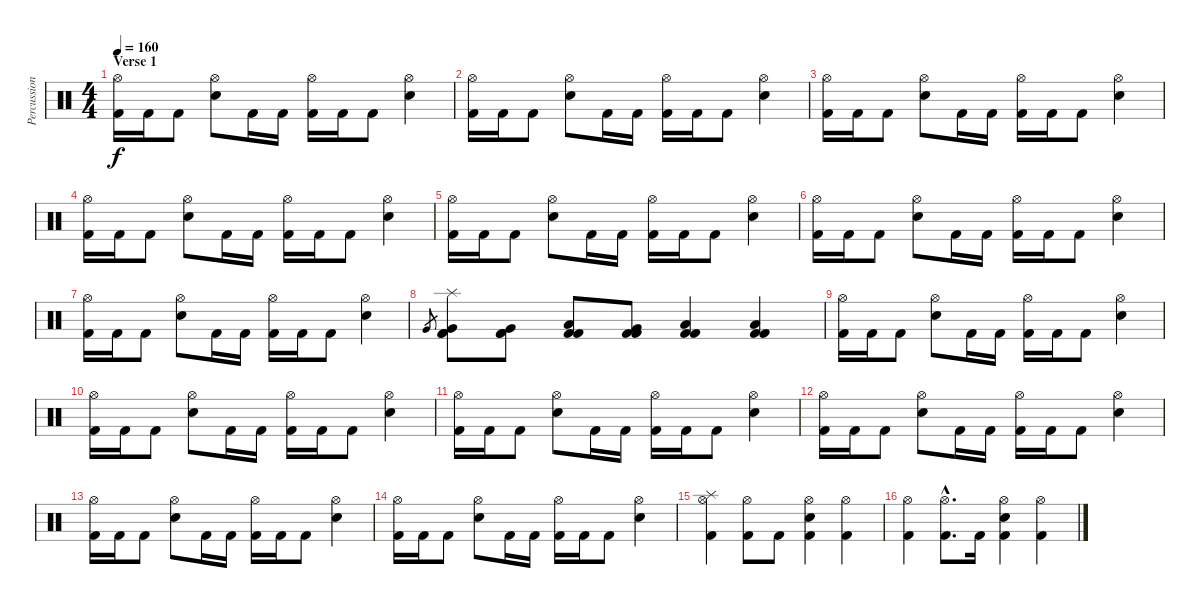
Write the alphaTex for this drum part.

\track ("Percussions" "Percussion") {instrument percussion}
\staff {score}
\articulation defaults
\ts (4 4)
\section ("" "Verse 1")
\tempo 160
\clef neutral
\ks c
("Hi-Hat (open)" "Kick (hit) 2").16{dy f} "Kick (hit) 2".16 "Kick (hit) 2".8 ("Electric Snare (hit)" "Hi-Hat (open)").8 "Kick (hit) 2".16 "Kick (hit) 2".16 ("Hi-Hat (open)" "Kick (hit) 2").16 "Kick (hit) 2".16 "Kick (hit) 2".8 ("Electric Snare (hit)" "Hi-Hat (open)").4 |
("Hi-Hat (open)" "Kick (hit) 2").16 "Kick (hit) 2".16 "Kick (hit) 2".8 ("Electric Snare (hit)" "Hi-Hat (open)").8 "Kick (hit) 2".16 "Kick (hit) 2".16 ("Hi-Hat (open)" "Kick (hit) 2").16 "Kick (hit) 2".16 "Kick (hit) 2".8 ("Electric Snare (hit)" "Hi-Hat (open)").4 |
("Hi-Hat (open)" "Kick (hit) 2").16 "Kick (hit) 2".16 "Kick (hit) 2".8 ("Electric Snare (hit)" "Hi-Hat (open)").8 "Kick (hit) 2".16 "Kick (hit) 2".16 ("Hi-Hat (open)" "Kick (hit) 2").16 "Kick (hit) 2".16 "Kick (hit) 2".8 ("Electric Snare (hit)" "Hi-Hat (open)").4 |
("Hi-Hat (open)" "Kick (hit) 2").16 "Kick (hit) 2".16 "Kick (hit) 2".8 ("Electric Snare (hit)" "Hi-Hat (open)").8 "Kick (hit) 2".16 "Kick (hit) 2".16 ("Hi-Hat (open)" "Kick (hit) 2").16 "Kick (hit) 2".16 "Kick (hit) 2".8 ("Electric Snare (hit)" "Hi-Hat (open)").4 |
("Hi-Hat (open)" "Kick (hit) 2").16 "Kick (hit) 2".16 "Kick (hit) 2".8 ("Electric Snare (hit)" "Hi-Hat (open)").8 "Kick (hit) 2".16 "Kick (hit) 2".16 ("Hi-Hat (open)" "Kick (hit) 2").16 "Kick (hit) 2".16 "Kick (hit) 2".8 ("Electric Snare (hit)" "Hi-Hat (open)").4 |
("Hi-Hat (open)" "Kick (hit) 2").16 "Kick (hit) 2".16 "Kick (hit) 2".8 ("Electric Snare (hit)" "Hi-Hat (open)").8 "Kick (hit) 2".16 "Kick (hit) 2".16 ("Hi-Hat (open)" "Kick (hit) 2").16 "Kick (hit) 2".16 "Kick (hit) 2".8 ("Electric Snare (hit)" "Hi-Hat (open)").4 |
("Hi-Hat (open)" "Kick (hit) 2").16 "Kick (hit) 2".16 "Kick (hit) 2".8 ("Electric Snare (hit)" "Hi-Hat (open)").8 "Kick (hit) 2".16 "Kick (hit) 2".16 ("Hi-Hat (open)" "Kick (hit) 2").16 "Kick (hit) 2".16 "Kick (hit) 2".8 ("Electric Snare (hit)" "Hi-Hat (open)").4 |
"Very Low Tom (hit)".8{gr} ("Splash (hit)" "Very Low Tom (hit)" "Kick (hit) 2" "Kick (hit) 2").8 ("Very Low Tom (hit)" "Kick (hit) 2" "Kick (hit) 2").8 ("Low Floor Tom (hit)" "Kick (hit) 2" "Kick (hit) 2").8 ("Very Low Tom (hit)" "Kick (hit) 2" "Kick (hit) 2").8 ("Low Floor Tom (hit)" "Kick (hit) 2" "Kick (hit) 2").4 ("Low Floor Tom (hit)" "Kick (hit) 2" "Kick (hit) 2").4 |
("Hi-Hat (open)" "Kick (hit) 2").16 "Kick (hit) 2".16 "Kick (hit) 2".8 ("Electric Snare (hit)" "Hi-Hat (open)").8 "Kick (hit) 2".16 "Kick (hit) 2".16 ("Hi-Hat (open)" "Kick (hit) 2").16 "Kick (hit) 2".16 "Kick (hit) 2".8 ("Electric Snare (hit)" "Hi-Hat (open)").4 |
("Hi-Hat (open)" "Kick (hit) 2").16 "Kick (hit) 2".16 "Kick (hit) 2".8 ("Electric Snare (hit)" "Hi-Hat (open)").8 "Kick (hit) 2".16 "Kick (hit) 2".16 ("Hi-Hat (open)" "Kick (hit) 2").16 "Kick (hit) 2".16 "Kick (hit) 2".8 ("Electric Snare (hit)" "Hi-Hat (open)").4 |
("Hi-Hat (open)" "Kick (hit) 2").16 "Kick (hit) 2".16 "Kick (hit) 2".8 ("Electric Snare (hit)" "Hi-Hat (open)").8 "Kick (hit) 2".16 "Kick (hit) 2".16 ("Hi-Hat (open)" "Kick (hit) 2").16 "Kick (hit) 2".16 "Kick (hit) 2".8 ("Electric Snare (hit)" "Hi-Hat (open)").4 |
("Hi-Hat (open)" "Kick (hit) 2").16 "Kick (hit) 2".16 "Kick (hit) 2".8 ("Electric Snare (hit)" "Hi-Hat (open)").8 "Kick (hit) 2".16 "Kick (hit) 2".16 ("Hi-Hat (open)" "Kick (hit) 2").16 "Kick (hit) 2".16 "Kick (hit) 2".8 ("Electric Snare (hit)" "Hi-Hat (open)").4 |
("Hi-Hat (open)" "Kick (hit) 2").16 "Kick (hit) 2".16 "Kick (hit) 2".8 ("Electric Snare (hit)" "Hi-Hat (open)").8 "Kick (hit) 2".16 "Kick (hit) 2".16 ("Hi-Hat (open)" "Kick (hit) 2").16 "Kick (hit) 2".16 "Kick (hit) 2".8 ("Electric Snare (hit)" "Hi-Hat (open)").4 |
("Hi-Hat (open)" "Kick (hit) 2").16 "Kick (hit) 2".16 "Kick (hit) 2".8 ("Electric Snare (hit)" "Hi-Hat (open)").8 "Kick (hit) 2".16 "Kick (hit) 2".16 ("Hi-Hat (open)" "Kick (hit) 2").16 "Kick (hit) 2".16 "Kick (hit) 2".8 ("Electric Snare (hit)" "Hi-Hat (open)").4 |
("Splash (hit)" "Hi-Hat (open)" "Kick (hit) 2").4 ("Hi-Hat (open)" "Kick (hit) 2").8 "Kick (hit) 2".8 ("Electric Snare (hit)" "Hi-Hat (open)" "Kick (hit) 2").4 ("Hi-Hat (open)" "Kick (hit) 2").4 |
("Hi-Hat (open)" "Kick (hit) 2").4 ("Hi-Hat (open)"{hac} "Kick (hit) 2"{hac}).8{d} "Kick (hit) 2".16 ("Electric Snare (hit)" "Hi-Hat (open)" "Kick (hit) 2").4 ("Hi-Hat (open)" "Kick (hit) 2").4
